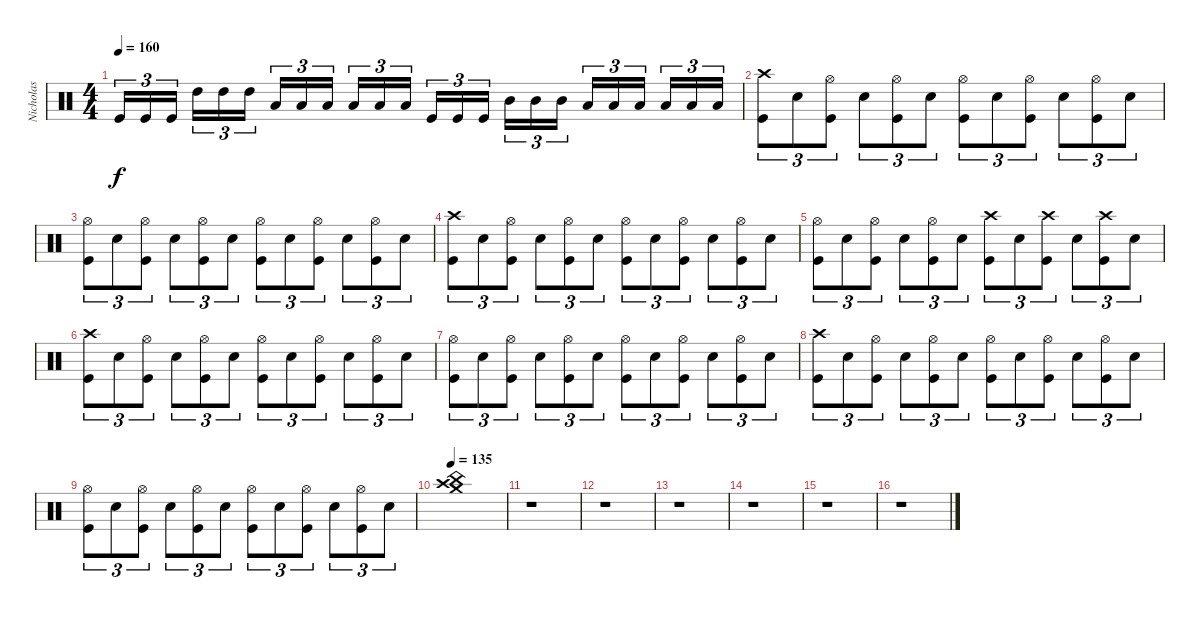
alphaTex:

\track ("Nicholas" "Nicholas") {instrument percussion}
\staff {score}
\articulation defaults
\ts (4 4)
\tempo 160
\clef neutral
\ks c "Kick (hit)".16{tu (3 2) dy f} "Kick (hit)".16{tu (3 2)} "Kick (hit)".16{tu (3 2)} "High Tom (hit)".16{tu (3 2)} "High Tom (hit)".16{tu (3 2)} "High Tom (hit)".16{tu (3 2)} "Low Tom (hit)".16{tu (3 2)} "Low Tom (hit)".16{tu (3 2)} "Low Tom (hit)".16{tu (3 2)} "Low Tom (hit)".16{tu (3 2)} "Low Tom (hit)".16{tu (3 2)} "Low Tom (hit)".16{tu (3 2)} "Kick (hit)".16{tu (3 2)} "Kick (hit)".16{tu (3 2)} "Kick (hit)".16{tu (3 2)} "Mid Tom (hit)".16{tu (3 2)} "Mid Tom (hit)".16{tu (3 2)} "Mid Tom (hit)".16{tu (3 2)} "Low Tom (hit)".16{tu (3 2)} "Low Tom (hit)".16{tu (3 2)} "Low Tom (hit)".16{tu (3 2)} "Low Tom (hit)".16{tu (3 2)} "Low Tom (hit)".16{tu (3 2)} "Low Tom (hit)".16{tu (3 2)}
|
("Crash high (hit)" "Kick (hit)").8{tu (3 2)} "Electric Snare (hit)".8{tu (3 2)} ("Hi-Hat (open)" "Kick (hit)").8{tu (3 2)} "Electric Snare (hit)".8{tu (3 2)} ("Hi-Hat (open)" "Kick (hit)").8{tu (3 2)} "Electric Snare (hit)".8{tu (3 2)} ("Hi-Hat (open)" "Kick (hit)").8{tu (3 2)} "Electric Snare (hit)".8{tu (3 2)} ("Hi-Hat (open)" "Kick (hit)").8{tu (3 2)} "Electric Snare (hit)".8{tu (3 2)} ("Hi-Hat (open)" "Kick (hit)").8{tu (3 2)} "Electric Snare (hit)".8{tu (3 2)} |
("Hi-Hat (open)" "Kick (hit)").8{tu (3 2)} "Electric Snare (hit)".8{tu (3 2)} ("Hi-Hat (open)" "Kick (hit)").8{tu (3 2)} "Electric Snare (hit)".8{tu (3 2)} ("Hi-Hat (open)" "Kick (hit)").8{tu (3 2)} "Electric Snare (hit)".8{tu (3 2)} ("Hi-Hat (open)" "Kick (hit)").8{tu (3 2)} "Electric Snare (hit)".8{tu (3 2)} ("Hi-Hat (open)" "Kick (hit)").8{tu (3 2)} "Electric Snare (hit)".8{tu (3 2)} ("Hi-Hat (open)" "Kick (hit)").8{tu (3 2)} "Electric Snare (hit)".8{tu (3 2)} |
("Crash high (hit)" "Kick (hit)").8{tu (3 2)} "Electric Snare (hit)".8{tu (3 2)} ("Hi-Hat (open)" "Kick (hit)").8{tu (3 2)} "Electric Snare (hit)".8{tu (3 2)} ("Hi-Hat (open)" "Kick (hit)").8{tu (3 2)} "Electric Snare (hit)".8{tu (3 2)} ("Hi-Hat (open)" "Kick (hit)").8{tu (3 2)} "Electric Snare (hit)".8{tu (3 2)} ("Hi-Hat (open)" "Kick (hit)").8{tu (3 2)} "Electric Snare (hit)".8{tu (3 2)} ("Hi-Hat (open)" "Kick (hit)").8{tu (3 2)} "Electric Snare (hit)".8{tu (3 2)} |
("Hi-Hat (open)" "Kick (hit)").8{tu (3 2)} "Electric Snare (hit)".8{tu (3 2)} ("Hi-Hat (open)" "Kick (hit)").8{tu (3 2)} "Electric Snare (hit)".8{tu (3 2)} ("Hi-Hat (open)" "Kick (hit)").8{tu (3 2)} "Electric Snare (hit)".8{tu (3 2)} ("Crash high (hit)" "Kick (hit)").8{tu (3 2)} "Electric Snare (hit)".8{tu (3 2)} ("Crash high (hit)" "Kick (hit)").8{tu (3 2)} "Electric Snare (hit)".8{tu (3 2)} ("Crash high (hit)" "Kick (hit)").8{tu (3 2)} "Electric Snare (hit)".8{tu (3 2)} |
("Crash high (hit)" "Kick (hit)").8{tu (3 2)} "Electric Snare (hit)".8{tu (3 2)} ("Hi-Hat (open)" "Kick (hit)").8{tu (3 2)} "Electric Snare (hit)".8{tu (3 2)} ("Hi-Hat (open)" "Kick (hit)").8{tu (3 2)} "Electric Snare (hit)".8{tu (3 2)} ("Hi-Hat (open)" "Kick (hit)").8{tu (3 2)} "Electric Snare (hit)".8{tu (3 2)} ("Hi-Hat (open)" "Kick (hit)").8{tu (3 2)} "Electric Snare (hit)".8{tu (3 2)} ("Hi-Hat (open)" "Kick (hit)").8{tu (3 2)} "Electric Snare (hit)".8{tu (3 2)} |
("Hi-Hat (open)" "Kick (hit)").8{tu (3 2)} "Electric Snare (hit)".8{tu (3 2)} ("Hi-Hat (open)" "Kick (hit)").8{tu (3 2)} "Electric Snare (hit)".8{tu (3 2)} ("Hi-Hat (open)" "Kick (hit)").8{tu (3 2)} "Electric Snare (hit)".8{tu (3 2)} ("Hi-Hat (open)" "Kick (hit)").8{tu (3 2)} "Electric Snare (hit)".8{tu (3 2)} ("Hi-Hat (open)" "Kick (hit)").8{tu (3 2)} "Electric Snare (hit)".8{tu (3 2)} ("Hi-Hat (open)" "Kick (hit)").8{tu (3 2)} "Electric Snare (hit)".8{tu (3 2)} |
("Crash high (hit)" "Kick (hit)").8{tu (3 2)} "Electric Snare (hit)".8{tu (3 2)} ("Hi-Hat (open)" "Kick (hit)").8{tu (3 2)} "Electric Snare (hit)".8{tu (3 2)} ("Hi-Hat (open)" "Kick (hit)").8{tu (3 2)} "Electric Snare (hit)".8{tu (3 2)} ("Hi-Hat (open)" "Kick (hit)").8{tu (3 2)} "Electric Snare (hit)".8{tu (3 2)} ("Hi-Hat (open)" "Kick (hit)").8{tu (3 2)} "Electric Snare (hit)".8{tu (3 2)} ("Hi-Hat (open)" "Kick (hit)").8{tu (3 2)} "Electric Snare (hit)".8{tu (3 2)} |
("Hi-Hat (open)" "Kick (hit)").8{tu (3 2)} "Electric Snare (hit)".8{tu (3 2)} ("Hi-Hat (open)" "Kick (hit)").8{tu (3 2)} "Electric Snare (hit)".8{tu (3 2)} ("Hi-Hat (open)" "Kick (hit)").8{tu (3 2)} "Electric Snare (hit)".8{tu (3 2)} ("Hi-Hat (open)" "Kick (hit)").8{tu (3 2)} "Electric Snare (hit)".8{tu (3 2)} ("Hi-Hat (open)" "Kick (hit)").8{tu (3 2)} "Electric Snare (hit)".8{tu (3 2)} ("Hi-Hat (open)" "Kick (hit)").8{tu (3 2)} "Electric Snare (hit)".8{tu (3 2)} |
\tempo 135
("Crash high (hit)" "China (hit)" "Crash medium (hit)").1 |
r.1 |
r.1 |
r.1 |
r.1 |
r.1 |
r.1
